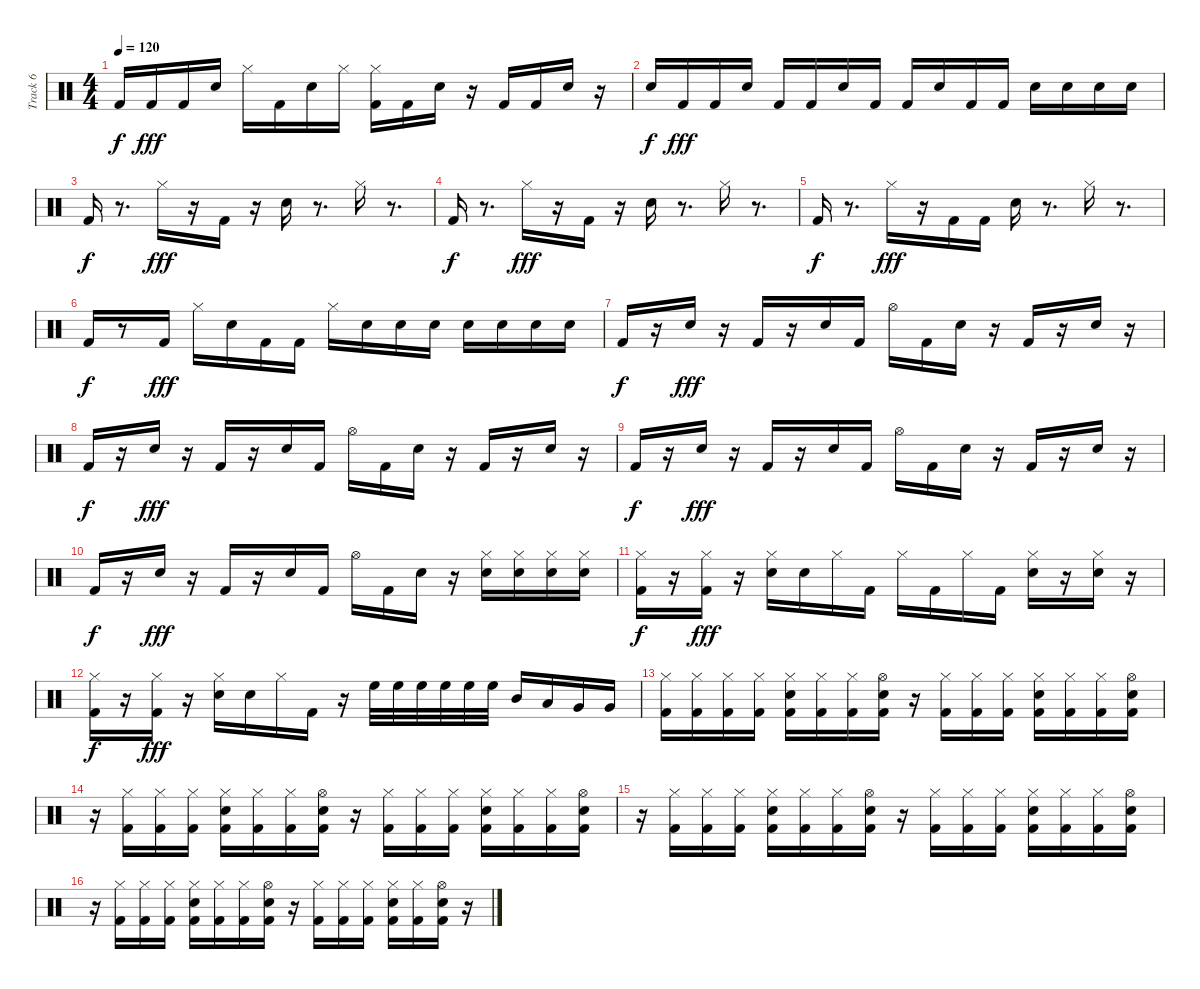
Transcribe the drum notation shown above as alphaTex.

\track ("Track 6" "Track 6") {instrument percussion}
\staff {score}
\articulation defaults
\ts (4 4)
\tempo 120
\clef neutral
\ks c "Kick (hit) 2".16{dy f} "Kick (hit) 2".16{dy fff} "Kick (hit) 2".16 "Snare (hit) 2".16 "Hi-Hat (closed)".16 "Kick (hit) 2".16 "Snare (hit) 2".16 "Hi-Hat (closed)".16
("Kick (hit) 2" "Hi-Hat (closed)").16 "Kick (hit) 2".16 "Snare (hit) 2".16 r.16 "Kick (hit) 2".16 "Kick (hit) 2".16 "Snare (hit) 2".16 r.16 |
"Snare (hit) 2".16{dy f} "Kick (hit) 2".16{dy fff} "Kick (hit) 2".16 "Snare (hit) 2".16 "Kick (hit) 2".16 "Kick (hit) 2".16 "Snare (hit) 2".16 "Kick (hit) 2".16 "Kick (hit) 2".16 "Snare (hit) 2".16 "Kick (hit) 2".16 "Kick (hit) 2".16 "Snare (hit) 2".16 "Snare (hit) 2".16 "Snare (hit) 2".16 "Snare (hit) 2".16 |
"Kick (hit) 2".16{dy f} r.8{d} "Hi-Hat (closed)".16{dy fff} r.16 "Kick (hit) 2".16 r.16 "Snare (hit) 2".16 r.8{d} "Hi-Hat (closed)".16 r.8{d} |
"Kick (hit) 2".16{dy f} r.8{d} "Hi-Hat (closed)".16{dy fff} r.16 "Kick (hit) 2".16 r.16 "Snare (hit) 2".16 r.8{d} "Hi-Hat (closed)".16 r.8{d} |
"Kick (hit) 2".16{dy f} r.8{d} "Hi-Hat (closed)".16{dy fff} r.16 "Kick (hit) 2".16 "Kick (hit) 2".16 "Snare (hit) 2".16 r.8{d} "Hi-Hat (closed)".16 r.8{d} |
"Kick (hit) 2".16{dy f} r.8 "Kick (hit) 2".16{dy fff} "Hi-Hat (closed)".16 "Snare (hit) 2".16 "Kick (hit) 2".16 "Kick (hit) 2".16 "Hi-Hat (closed)".16 "Snare (hit) 2".16 "Snare (hit) 2".16 "Snare (hit) 2".16 "Snare (hit) 2".16 "Snare (hit) 2".16 "Snare (hit) 2".16 "Snare (hit) 2".16 |
"Kick (hit) 2".16{dy f} r.16 "Snare (hit) 2".16{dy fff} r.16 "Kick (hit) 2".16 r.16 "Snare (hit) 2".16 "Kick (hit) 2".16 "Hi-Hat (open)".16 "Kick (hit) 2".16 "Snare (hit) 2".16 r.16 "Kick (hit) 2".16 r.16 "Snare (hit) 2".16 r.16 |
"Kick (hit) 2".16{dy f} r.16 "Snare (hit) 2".16{dy fff} r.16 "Kick (hit) 2".16 r.16 "Snare (hit) 2".16 "Kick (hit) 2".16 "Hi-Hat (open)".16 "Kick (hit) 2".16 "Snare (hit) 2".16 r.16 "Kick (hit) 2".16 r.16 "Snare (hit) 2".16 r.16 |
"Kick (hit) 2".16{dy f} r.16 "Snare (hit) 2".16{dy fff} r.16 "Kick (hit) 2".16 r.16 "Snare (hit) 2".16 "Kick (hit) 2".16 "Hi-Hat (open)".16 "Kick (hit) 2".16 "Snare (hit) 2".16 r.16 "Kick (hit) 2".16 r.16 "Snare (hit) 2".16 r.16 |
"Kick (hit) 2".16{dy f} r.16 "Snare (hit) 2".16{dy fff} r.16 "Kick (hit) 2".16 r.16 "Snare (hit) 2".16 "Kick (hit) 2".16 "Hi-Hat (open)".16 "Kick (hit) 2".16 "Snare (hit) 2".16 r.16 ("Snare (hit) 2" "Hi-Hat (closed)").16 ("Snare (hit) 2" "Hi-Hat (closed)").16 ("Snare (hit) 2" "Hi-Hat (closed)").16 ("Snare (hit) 2" "Hi-Hat (closed)").16 |
("Hi-Hat (closed)" "Kick (hit) 2").16{dy f} r.16 ("Hi-Hat (closed)" "Kick (hit) 2").16{dy fff} r.16 ("Hi-Hat (closed)" "Snare (hit) 2").16 "Snare (hit) 2".16 "Hi-Hat (closed)".16 "Kick (hit) 2".16 "Hi-Hat (closed)".16 "Kick (hit) 2".16 "Hi-Hat (closed)".16 "Kick (hit) 2".16 ("Hi-Hat (closed)" "Snare (hit) 2").16 r.16 ("Hi-Hat (closed)" "Snare (hit) 2").16 r.16 |
("Hi-Hat (closed)" "Kick (hit) 2").16{dy f} r.16 ("Hi-Hat (closed)" "Kick (hit) 2").16{dy fff} r.16 ("Hi-Hat (closed)" "Snare (hit) 2").16 "Snare (hit) 2".16 "Hi-Hat (closed)".16 "Kick (hit) 2".16 r.16 "High Floor Tom (hit)".32 "High Floor Tom (hit)".32 "High Floor Tom (hit)".32 "High Floor Tom (hit)".32 "High Floor Tom (hit)".32 "High Floor Tom (hit)".32 "Mid Tom (hit)".16 "Low Tom (hit)".16 "Very Low Tom (hit)".16 "Very Low Tom (hit)".16 |
("Kick (hit) 2" "Hi-Hat (closed)").16 ("Kick (hit) 2" "Hi-Hat (closed)").16 ("Kick (hit) 2" "Hi-Hat (closed)").16 ("Kick (hit) 2" "Hi-Hat (closed)").16 ("Snare (hit) 2" "Kick (hit) 2" "Hi-Hat (closed)").16 ("Kick (hit) 2" "Hi-Hat (closed)").16 ("Kick (hit) 2" "Hi-Hat (closed)").16 ("Kick (hit) 2" "Snare (hit) 2" "Hi-Hat (open)").16 r.16 ("Kick (hit) 2" "Hi-Hat (closed)").16 ("Kick (hit) 2" "Hi-Hat (closed)").16 ("Kick (hit) 2" "Hi-Hat (closed)").16 ("Snare (hit) 2" "Kick (hit) 2" "Hi-Hat (closed)").16 ("Kick (hit) 2" "Hi-Hat (closed)").16 ("Kick (hit) 2" "Hi-Hat (closed)").16 ("Kick (hit) 2" "Snare (hit) 2" "Hi-Hat (open)").16 |
r.16 ("Kick (hit) 2" "Hi-Hat (closed)").16 ("Kick (hit) 2" "Hi-Hat (closed)").16 ("Kick (hit) 2" "Hi-Hat (closed)").16 ("Snare (hit) 2" "Kick (hit) 2" "Hi-Hat (closed)").16 ("Kick (hit) 2" "Hi-Hat (closed)").16 ("Kick (hit) 2" "Hi-Hat (closed)").16 ("Kick (hit) 2" "Snare (hit) 2" "Hi-Hat (open)").16 r.16 ("Kick (hit) 2" "Hi-Hat (closed)").16 ("Kick (hit) 2" "Hi-Hat (closed)").16 ("Kick (hit) 2" "Hi-Hat (closed)").16 ("Snare (hit) 2" "Kick (hit) 2" "Hi-Hat (closed)").16 ("Kick (hit) 2" "Hi-Hat (closed)").16 ("Kick (hit) 2" "Hi-Hat (closed)").16 ("Kick (hit) 2" "Snare (hit) 2" "Hi-Hat (open)").16 |
r.16 ("Kick (hit) 2" "Hi-Hat (closed)").16 ("Kick (hit) 2" "Hi-Hat (closed)").16 ("Kick (hit) 2" "Hi-Hat (closed)").16 ("Snare (hit) 2" "Kick (hit) 2" "Hi-Hat (closed)").16 ("Kick (hit) 2" "Hi-Hat (closed)").16 ("Kick (hit) 2" "Hi-Hat (closed)").16 ("Kick (hit) 2" "Snare (hit) 2" "Hi-Hat (open)").16 r.16 ("Kick (hit) 2" "Hi-Hat (closed)").16 ("Kick (hit) 2" "Hi-Hat (closed)").16 ("Kick (hit) 2" "Hi-Hat (closed)").16 ("Snare (hit) 2" "Kick (hit) 2" "Hi-Hat (closed)").16 ("Kick (hit) 2" "Hi-Hat (closed)").16 ("Kick (hit) 2" "Hi-Hat (closed)").16 ("Kick (hit) 2" "Snare (hit) 2" "Hi-Hat (open)").16 |
r.16 ("Kick (hit) 2" "Hi-Hat (closed)").16 ("Kick (hit) 2" "Hi-Hat (closed)").16 ("Kick (hit) 2" "Hi-Hat (closed)").16 ("Snare (hit) 2" "Kick (hit) 2" "Hi-Hat (closed)").16 ("Kick (hit) 2" "Hi-Hat (closed)").16 ("Kick (hit) 2" "Hi-Hat (closed)").16 ("Kick (hit) 2" "Snare (hit) 2" "Hi-Hat (open)").16 r.16 ("Kick (hit) 2" "Hi-Hat (closed)").16 ("Kick (hit) 2" "Hi-Hat (closed)").16 ("Kick (hit) 2" "Hi-Hat (closed)").16 ("Snare (hit) 2" "Kick (hit) 2" "Hi-Hat (closed)").16 ("Kick (hit) 2" "Hi-Hat (closed)").16 ("Kick (hit) 2" "Hi-Hat (open)" "Snare (hit) 2").16 r.16
